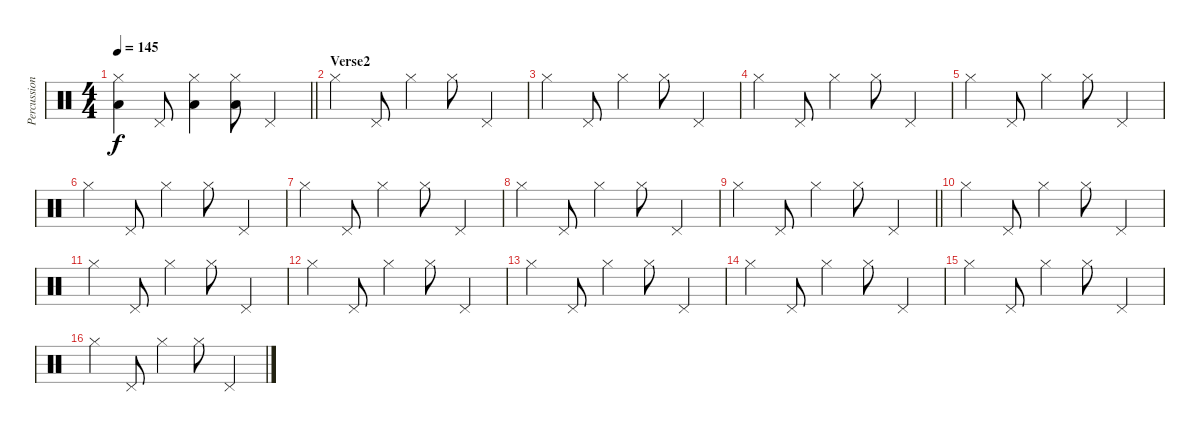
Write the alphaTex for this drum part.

\track ("Percussion" "Percussion") {instrument percussion}
\staff {score}
\articulation defaults
\ts (4 4)
\tempo 145
\clef neutral
\barLineRight lightlight
\ks c
("Hi-Hat (closed)" "Low Floor Tom (hit)").4{dy f} "Pedal Hi-Hat (hit)".8 ("Hi-Hat (closed)" "Low Floor Tom (hit)").4 ("Hi-Hat (closed)" "Low Floor Tom (hit)").8 "Pedal Hi-Hat (hit)".4 |
\section ("" "Verse2")
"Hi-Hat (closed)".4 "Pedal Hi-Hat (hit)".8 "Hi-Hat (closed)".4 "Hi-Hat (closed)".8 "Pedal Hi-Hat (hit)".4 |
"Hi-Hat (closed)".4 "Pedal Hi-Hat (hit)".8 "Hi-Hat (closed)".4 "Hi-Hat (closed)".8 "Pedal Hi-Hat (hit)".4 |
"Hi-Hat (closed)".4 "Pedal Hi-Hat (hit)".8 "Hi-Hat (closed)".4 "Hi-Hat (closed)".8 "Pedal Hi-Hat (hit)".4 |
"Hi-Hat (closed)".4 "Pedal Hi-Hat (hit)".8 "Hi-Hat (closed)".4 "Hi-Hat (closed)".8 "Pedal Hi-Hat (hit)".4 |
"Hi-Hat (closed)".4 "Pedal Hi-Hat (hit)".8 "Hi-Hat (closed)".4 "Hi-Hat (closed)".8 "Pedal Hi-Hat (hit)".4 |
"Hi-Hat (closed)".4 "Pedal Hi-Hat (hit)".8 "Hi-Hat (closed)".4 "Hi-Hat (closed)".8 "Pedal Hi-Hat (hit)".4 |
"Hi-Hat (closed)".4 "Pedal Hi-Hat (hit)".8 "Hi-Hat (closed)".4 "Hi-Hat (closed)".8 "Pedal Hi-Hat (hit)".4 |
\barLineRight lightlight "Hi-Hat (closed)".4 "Pedal Hi-Hat (hit)".8 "Hi-Hat (closed)".4 "Hi-Hat (closed)".8 "Pedal Hi-Hat (hit)".4
|
"Hi-Hat (closed)".4 "Pedal Hi-Hat (hit)".8 "Hi-Hat (closed)".4 "Hi-Hat (closed)".8 "Pedal Hi-Hat (hit)".4 |
"Hi-Hat (closed)".4 "Pedal Hi-Hat (hit)".8 "Hi-Hat (closed)".4 "Hi-Hat (closed)".8 "Pedal Hi-Hat (hit)".4 |
"Hi-Hat (closed)".4 "Pedal Hi-Hat (hit)".8 "Hi-Hat (closed)".4 "Hi-Hat (closed)".8 "Pedal Hi-Hat (hit)".4 |
"Hi-Hat (closed)".4 "Pedal Hi-Hat (hit)".8 "Hi-Hat (closed)".4 "Hi-Hat (closed)".8 "Pedal Hi-Hat (hit)".4 |
"Hi-Hat (closed)".4 "Pedal Hi-Hat (hit)".8 "Hi-Hat (closed)".4 "Hi-Hat (closed)".8 "Pedal Hi-Hat (hit)".4 |
"Hi-Hat (closed)".4 "Pedal Hi-Hat (hit)".8 "Hi-Hat (closed)".4 "Hi-Hat (closed)".8 "Pedal Hi-Hat (hit)".4 |
"Hi-Hat (closed)".4 "Pedal Hi-Hat (hit)".8 "Hi-Hat (closed)".4 "Hi-Hat (closed)".8 "Pedal Hi-Hat (hit)".4
